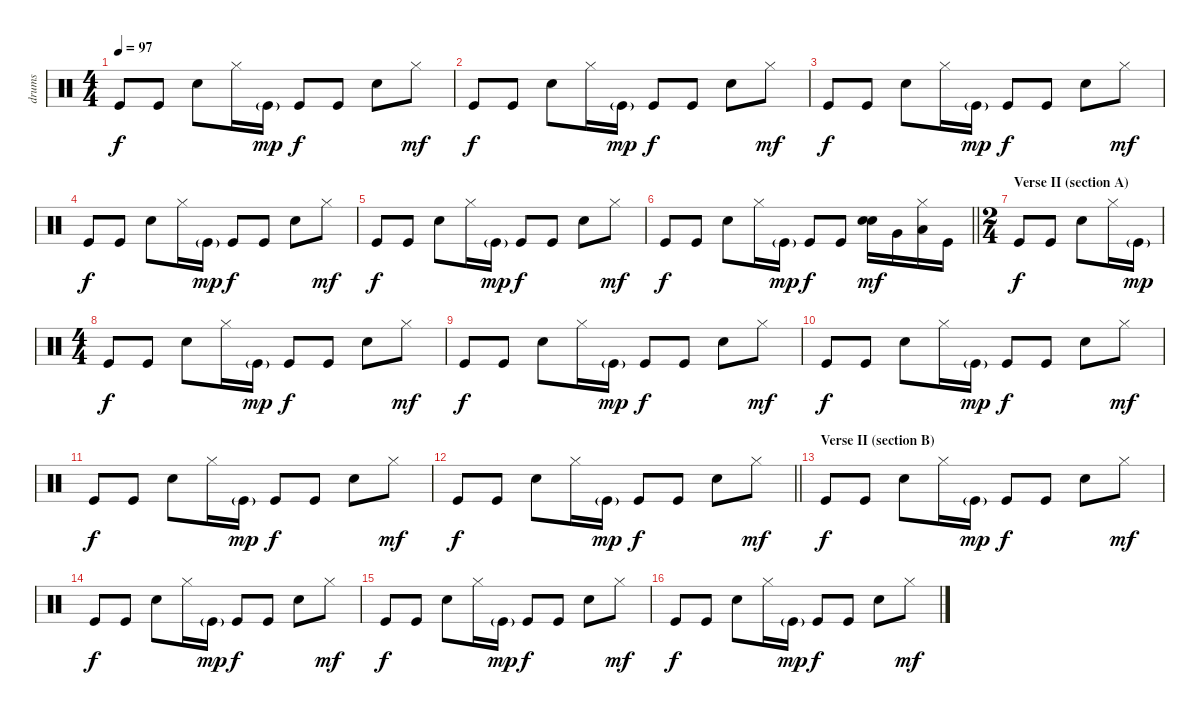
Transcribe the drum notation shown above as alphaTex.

\track ("drums" "drums") {instrument percussion}
\staff {score}
\articulation defaults
\ts (4 4)
\tempo 97
\clef neutral
\ks c "Kick (hit)".8{dy f} "Kick (hit)".8 "Electric Snare (hit)".8 "Hi-Hat (closed)".16 "Kick (hit)"{g}.16{dy mp} "Kick (hit)".8{dy f} "Kick (hit)".8 "Electric Snare (hit)".8 "Hi-Hat (closed)".8{dy mf}
|
"Kick (hit)".8{dy f} "Kick (hit)".8 "Electric Snare (hit)".8 "Hi-Hat (closed)".16 "Kick (hit)"{g}.16{dy mp} "Kick (hit)".8{dy f} "Kick (hit)".8 "Electric Snare (hit)".8 "Hi-Hat (closed)".8{dy mf} |
"Kick (hit)".8{dy f} "Kick (hit)".8 "Electric Snare (hit)".8 "Hi-Hat (closed)".16 "Kick (hit)"{g}.16{dy mp} "Kick (hit)".8{dy f} "Kick (hit)".8 "Electric Snare (hit)".8 "Hi-Hat (closed)".8{dy mf} |
"Kick (hit)".8{dy f} "Kick (hit)".8 "Electric Snare (hit)".8 "Hi-Hat (closed)".16 "Kick (hit)"{g}.16{dy mp} "Kick (hit)".8{dy f} "Kick (hit)".8 "Electric Snare (hit)".8 "Hi-Hat (closed)".8{dy mf} |
"Kick (hit)".8{dy f} "Kick (hit)".8 "Electric Snare (hit)".8 "Hi-Hat (closed)".16 "Kick (hit)"{g}.16{dy mp} "Kick (hit)".8{dy f} "Kick (hit)".8 "Electric Snare (hit)".8 "Hi-Hat (closed)".8{dy mf} |
\barLineRight lightlight "Kick (hit)".8{dy f} "Kick (hit)".8 "Electric Snare (hit)".8 "Hi-Hat (closed)".16 "Kick (hit)"{g}.16{dy mp} "Kick (hit)".8{dy f} "Kick (hit)".8
("Electric Snare (hit)" "Electric Snare (hit)").16{bd 60 dy mf} "Very Low Tom (hit)".16 ("Hi-Hat (closed)" "Low Floor Tom (hit)").16 "Kick (hit)".16 |
\ts (2 4)
\section ("" "Verse II (section A)")
"Kick (hit)".8{dy f} "Kick (hit)".8 "Electric Snare (hit)".8 "Hi-Hat (closed)".16 "Kick (hit)"{g}.16{dy mp} |
\ts (4 4)
"Kick (hit)".8{dy f} "Kick (hit)".8 "Electric Snare (hit)".8 "Hi-Hat (closed)".16 "Kick (hit)"{g}.16{dy mp} "Kick (hit)".8{dy f} "Kick (hit)".8 "Electric Snare (hit)".8 "Hi-Hat (closed)".8{dy mf} |
"Kick (hit)".8{dy f} "Kick (hit)".8 "Electric Snare (hit)".8 "Hi-Hat (closed)".16 "Kick (hit)"{g}.16{dy mp} "Kick (hit)".8{dy f} "Kick (hit)".8 "Electric Snare (hit)".8 "Hi-Hat (closed)".8{dy mf} |
"Kick (hit)".8{dy f} "Kick (hit)".8 "Electric Snare (hit)".8 "Hi-Hat (closed)".16 "Kick (hit)"{g}.16{dy mp} "Kick (hit)".8{dy f} "Kick (hit)".8 "Electric Snare (hit)".8 "Hi-Hat (closed)".8{dy mf} |
"Kick (hit)".8{dy f} "Kick (hit)".8 "Electric Snare (hit)".8 "Hi-Hat (closed)".16 "Kick (hit)"{g}.16{dy mp} "Kick (hit)".8{dy f} "Kick (hit)".8 "Electric Snare (hit)".8 "Hi-Hat (closed)".8{dy mf} |
\barLineRight lightlight "Kick (hit)".8{dy f} "Kick (hit)".8 "Electric Snare (hit)".8 "Hi-Hat (closed)".16 "Kick (hit)"{g}.16{dy mp} "Kick (hit)".8{dy f} "Kick (hit)".8 "Electric Snare (hit)".8 "Hi-Hat (closed)".8{dy mf}
|
\section ("" "Verse II (section B)")
"Kick (hit)".8{dy f} "Kick (hit)".8 "Electric Snare (hit)".8 "Hi-Hat (closed)".16 "Kick (hit)"{g}.16{dy mp} "Kick (hit)".8{dy f} "Kick (hit)".8 "Electric Snare (hit)".8 "Hi-Hat (closed)".8{dy mf} |
"Kick (hit)".8{dy f} "Kick (hit)".8 "Electric Snare (hit)".8 "Hi-Hat (closed)".16 "Kick (hit)"{g}.16{dy mp} "Kick (hit)".8{dy f} "Kick (hit)".8 "Electric Snare (hit)".8 "Hi-Hat (closed)".8{dy mf} |
"Kick (hit)".8{dy f} "Kick (hit)".8 "Electric Snare (hit)".8 "Hi-Hat (closed)".16 "Kick (hit)"{g}.16{dy mp} "Kick (hit)".8{dy f} "Kick (hit)".8 "Electric Snare (hit)".8 "Hi-Hat (closed)".8{dy mf} |
"Kick (hit)".8{dy f} "Kick (hit)".8 "Electric Snare (hit)".8 "Hi-Hat (closed)".16 "Kick (hit)"{g}.16{dy mp} "Kick (hit)".8{dy f} "Kick (hit)".8 "Electric Snare (hit)".8 "Hi-Hat (closed)".8{dy mf}
